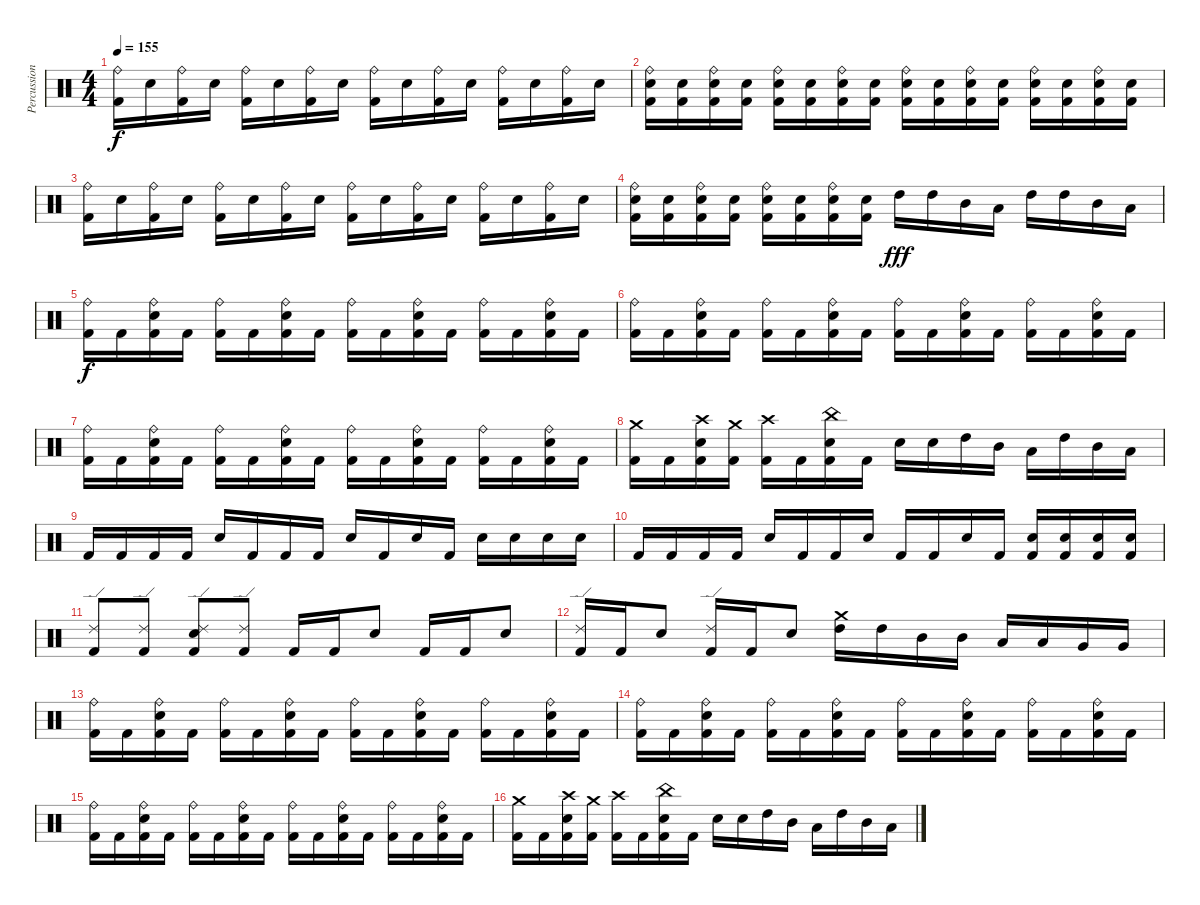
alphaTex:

\track ("Percussions" "Percussion") {instrument percussion}
\staff {score}
\articulation defaults
\ts (4 4)
\tempo 155
\clef neutral
\ks c
("Ride (bell)" "Kick (hit) 2").16{dy f} "Electric Snare (hit)".16 ("Ride (bell)" "Kick (hit) 2").16 "Electric Snare (hit)".16 ("Ride (bell)" "Kick (hit) 2").16 "Electric Snare (hit)".16 ("Ride (bell)" "Kick (hit) 2").16 "Electric Snare (hit)".16 ("Ride (bell)" "Kick (hit) 2").16 "Electric Snare (hit)".16 ("Ride (bell)" "Kick (hit) 2").16 "Electric Snare (hit)".16 ("Ride (bell)" "Kick (hit) 2").16 "Electric Snare (hit)".16 ("Ride (bell)" "Kick (hit) 2").16 "Electric Snare (hit)".16 |
("Ride (bell)" "Electric Snare (hit)" "Kick (hit) 2").16 ("Electric Snare (hit)" "Kick (hit) 2").16 ("Ride (bell)" "Electric Snare (hit)" "Kick (hit) 2").16 ("Electric Snare (hit)" "Kick (hit) 2").16 ("Ride (bell)" "Electric Snare (hit)" "Kick (hit) 2").16 ("Electric Snare (hit)" "Kick (hit) 2").16 ("Ride (bell)" "Electric Snare (hit)" "Kick (hit) 2").16 ("Electric Snare (hit)" "Kick (hit) 2").16 ("Ride (bell)" "Electric Snare (hit)" "Kick (hit) 2").16 ("Electric Snare (hit)" "Kick (hit) 2").16 ("Ride (bell)" "Electric Snare (hit)" "Kick (hit) 2").16 ("Electric Snare (hit)" "Kick (hit) 2").16 ("Ride (bell)" "Electric Snare (hit)" "Kick (hit) 2").16 ("Electric Snare (hit)" "Kick (hit) 2").16 ("Ride (bell)" "Electric Snare (hit)" "Kick (hit) 2").16 ("Electric Snare (hit)" "Kick (hit) 2").16 |
("Ride (bell)" "Kick (hit) 2").16 "Electric Snare (hit)".16 ("Ride (bell)" "Kick (hit) 2").16 "Electric Snare (hit)".16 ("Ride (bell)" "Kick (hit) 2").16 "Electric Snare (hit)".16 ("Ride (bell)" "Kick (hit) 2").16 "Electric Snare (hit)".16 ("Ride (bell)" "Kick (hit) 2").16 "Electric Snare (hit)".16 ("Ride (bell)" "Kick (hit) 2").16 "Electric Snare (hit)".16 ("Ride (bell)" "Kick (hit) 2").16 "Electric Snare (hit)".16 ("Ride (bell)" "Kick (hit) 2").16 "Electric Snare (hit)".16 |
("Ride (bell)" "Electric Snare (hit)" "Kick (hit) 2").16 ("Electric Snare (hit)" "Kick (hit) 2").16 ("Ride (bell)" "Electric Snare (hit)" "Kick (hit) 2").16 ("Electric Snare (hit)" "Kick (hit) 2").16 ("Ride (bell)" "Electric Snare (hit)" "Kick (hit) 2").16 ("Electric Snare (hit)" "Kick (hit) 2").16 ("Ride (bell)" "Electric Snare (hit)" "Kick (hit) 2").16 ("Electric Snare (hit)" "Kick (hit) 2").16 "High Tom (hit)".16{dy fff} "High Tom (hit)".16 "Mid Tom (hit)".16 "Low Tom (hit)".16 "High Tom (hit)".16 "High Tom (hit)".16 "Mid Tom (hit)".16 "Low Tom (hit)".16 |
("Ride (bell)" "Kick (hit) 2").16{dy f} "Kick (hit) 2".16 ("Ride (bell)" "Electric Snare (hit)" "Kick (hit) 2").16 "Kick (hit) 2".16 ("Ride (bell)" "Kick (hit) 2").16 "Kick (hit) 2".16 ("Ride (bell)" "Electric Snare (hit)" "Kick (hit) 2").16 "Kick (hit) 2".16 ("Ride (bell)" "Kick (hit) 2").16 "Kick (hit) 2".16 ("Ride (bell)" "Electric Snare (hit)" "Kick (hit) 2").16 "Kick (hit) 2".16 ("Ride (bell)" "Kick (hit) 2").16 "Kick (hit) 2".16 ("Ride (bell)" "Electric Snare (hit)" "Kick (hit) 2").16 "Kick (hit) 2".16 |
("Ride (bell)" "Kick (hit) 2").16 "Kick (hit) 2".16 ("Ride (bell)" "Electric Snare (hit)" "Kick (hit) 2").16 "Kick (hit) 2".16 ("Ride (bell)" "Kick (hit) 2").16 "Kick (hit) 2".16 ("Ride (bell)" "Electric Snare (hit)" "Kick (hit) 2").16 "Kick (hit) 2".16 ("Ride (bell)" "Kick (hit) 2").16 "Kick (hit) 2".16 ("Ride (bell)" "Electric Snare (hit)" "Kick (hit) 2").16 "Kick (hit) 2".16 ("Ride (bell)" "Kick (hit) 2").16 "Kick (hit) 2".16 ("Ride (bell)" "Electric Snare (hit)" "Kick (hit) 2").16 "Kick (hit) 2".16 |
("Ride (bell)" "Kick (hit) 2").16 "Kick (hit) 2".16 ("Ride (bell)" "Electric Snare (hit)" "Kick (hit) 2").16 "Kick (hit) 2".16 ("Ride (bell)" "Kick (hit) 2").16 "Kick (hit) 2".16 ("Ride (bell)" "Electric Snare (hit)" "Kick (hit) 2").16 "Kick (hit) 2".16 ("Ride (bell)" "Kick (hit) 2").16 "Kick (hit) 2".16 ("Ride (bell)" "Electric Snare (hit)" "Kick (hit) 2").16 "Kick (hit) 2".16 ("Ride (bell)" "Kick (hit) 2").16 "Kick (hit) 2".16 ("Ride (bell)" "Electric Snare (hit)" "Kick (hit) 2").16 "Kick (hit) 2".16 |
("Crash medium (hit)" "Kick (hit) 2").16 "Kick (hit) 2".16 ("Crash high (hit)" "Electric Snare (hit)" "Kick (hit) 2").16 ("Crash medium (hit)" "Kick (hit) 2").16 ("Crash high (hit)" "Kick (hit) 2").16 "Kick (hit) 2".16 ("China (hit)" "Electric Snare (hit)" "Kick (hit) 2").16 "Kick (hit) 2".16 "Electric Snare (hit)".16 "Electric Snare (hit)".16 "High Tom (hit)".16 "Mid Tom (hit)".16 "Low Tom (hit)".16 "High Tom (hit)".16 "Mid Tom (hit)".16 "Low Tom (hit)".16 |
"Kick (hit) 2".16 "Kick (hit) 2".16 "Kick (hit) 2".16 "Kick (hit) 2".16 "Electric Snare (hit)".16 "Kick (hit) 2".16 "Kick (hit) 2".16 "Kick (hit) 2".16 "Electric Snare (hit)".16 "Kick (hit) 2".16 "Electric Snare (hit)".16 "Kick (hit) 2".16 "Electric Snare (hit)".16 "Electric Snare (hit)".16 "Electric Snare (hit)".16 "Electric Snare (hit)".16 |
"Kick (hit) 2".16 "Kick (hit) 2".16 "Kick (hit) 2".16 "Kick (hit) 2".16 "Electric Snare (hit)".16 "Kick (hit) 2".16 "Kick (hit) 2".16 "Electric Snare (hit)".16 "Kick (hit) 2".16 "Kick (hit) 2".16 "Electric Snare (hit)".16 "Kick (hit) 2".16 ("Electric Snare (hit)" "Kick (hit) 2").16 ("Electric Snare (hit)" "Kick (hit) 2").16 ("Electric Snare (hit)" "Kick (hit) 2").16 ("Electric Snare (hit)" "Kick (hit) 2").16 |
("Ride (edge) 2" "Kick (hit) 2").8 ("Ride (edge) 2" "Kick (hit) 2").8 ("Ride (edge) 2" "Electric Snare (hit)" "Kick (hit) 2").8 ("Ride (edge) 2" "Kick (hit) 2").8 "Kick (hit) 2".16 "Kick (hit) 2".16 "Electric Snare (hit)".8 "Kick (hit) 2".16 "Kick (hit) 2".16 "Electric Snare (hit)".8 |
("Ride (edge) 2" "Kick (hit) 2").16 "Kick (hit) 2".16 "Electric Snare (hit)".8 ("Ride (edge) 2" "Kick (hit) 2").16 "Kick (hit) 2".16 "Electric Snare (hit)".8 ("Crash medium (hit)" "High Tom (hit)").16 "High Tom (hit)".16 "Mid Tom (hit)".16 "Mid Tom (hit)".16 "Low Tom (hit)".16 "Low Tom (hit)".16 "Very Low Tom (hit)".16 "Very Low Tom (hit)".16 |
("Ride (bell)" "Kick (hit) 2").16 "Kick (hit) 2".16 ("Ride (bell)" "Electric Snare (hit)" "Kick (hit) 2").16 "Kick (hit) 2".16 ("Ride (bell)" "Kick (hit) 2").16 "Kick (hit) 2".16 ("Ride (bell)" "Electric Snare (hit)" "Kick (hit) 2").16 "Kick (hit) 2".16 ("Ride (bell)" "Kick (hit) 2").16 "Kick (hit) 2".16 ("Ride (bell)" "Electric Snare (hit)" "Kick (hit) 2").16 "Kick (hit) 2".16 ("Ride (bell)" "Kick (hit) 2").16 "Kick (hit) 2".16 ("Ride (bell)" "Electric Snare (hit)" "Kick (hit) 2").16 "Kick (hit) 2".16 |
("Ride (bell)" "Kick (hit) 2").16 "Kick (hit) 2".16 ("Ride (bell)" "Electric Snare (hit)" "Kick (hit) 2").16 "Kick (hit) 2".16 ("Ride (bell)" "Kick (hit) 2").16 "Kick (hit) 2".16 ("Ride (bell)" "Electric Snare (hit)" "Kick (hit) 2").16 "Kick (hit) 2".16 ("Ride (bell)" "Kick (hit) 2").16 "Kick (hit) 2".16 ("Ride (bell)" "Electric Snare (hit)" "Kick (hit) 2").16 "Kick (hit) 2".16 ("Ride (bell)" "Kick (hit) 2").16 "Kick (hit) 2".16 ("Ride (bell)" "Electric Snare (hit)" "Kick (hit) 2").16 "Kick (hit) 2".16 |
("Ride (bell)" "Kick (hit) 2").16 "Kick (hit) 2".16 ("Ride (bell)" "Electric Snare (hit)" "Kick (hit) 2").16 "Kick (hit) 2".16 ("Ride (bell)" "Kick (hit) 2").16 "Kick (hit) 2".16 ("Ride (bell)" "Electric Snare (hit)" "Kick (hit) 2").16 "Kick (hit) 2".16 ("Ride (bell)" "Kick (hit) 2").16 "Kick (hit) 2".16 ("Ride (bell)" "Electric Snare (hit)" "Kick (hit) 2").16 "Kick (hit) 2".16 ("Ride (bell)" "Kick (hit) 2").16 "Kick (hit) 2".16 ("Ride (bell)" "Electric Snare (hit)" "Kick (hit) 2").16 "Kick (hit) 2".16 |
("Crash medium (hit)" "Kick (hit) 2").16 "Kick (hit) 2".16 ("Crash high (hit)" "Electric Snare (hit)" "Kick (hit) 2").16 ("Crash medium (hit)" "Kick (hit) 2").16 ("Crash high (hit)" "Kick (hit) 2").16 "Kick (hit) 2".16 ("China (hit)" "Electric Snare (hit)" "Kick (hit) 2").16 "Kick (hit) 2".16 "Electric Snare (hit)".16 "Electric Snare (hit)".16 "High Tom (hit)".16 "Mid Tom (hit)".16 "Low Tom (hit)".16 "High Tom (hit)".16 "Mid Tom (hit)".16 "Low Tom (hit)".16
